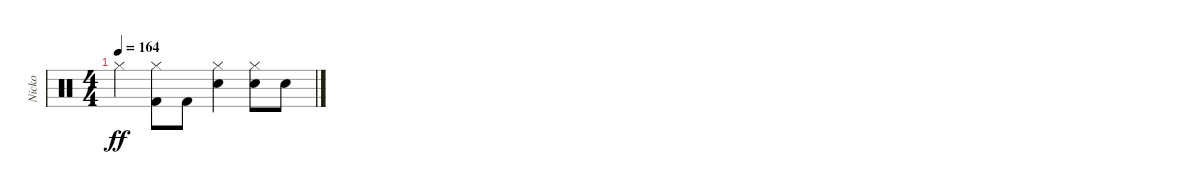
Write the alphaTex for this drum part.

\track ("Nicko" "Nicko") {instrument percussion}
\staff {score}
\articulation defaults
\ts (4 4)
\tempo 164
\clef neutral
\ks c "Hi-Hat (closed)".4{dy ff}
("Kick (hit) 2" "Hi-Hat (closed)").8 "Kick (hit) 2".8 ("Snare (hit) 2" "Hi-Hat (closed)").4 ("Snare (hit) 2" "Hi-Hat (closed)").8 "Snare (hit) 2".8
